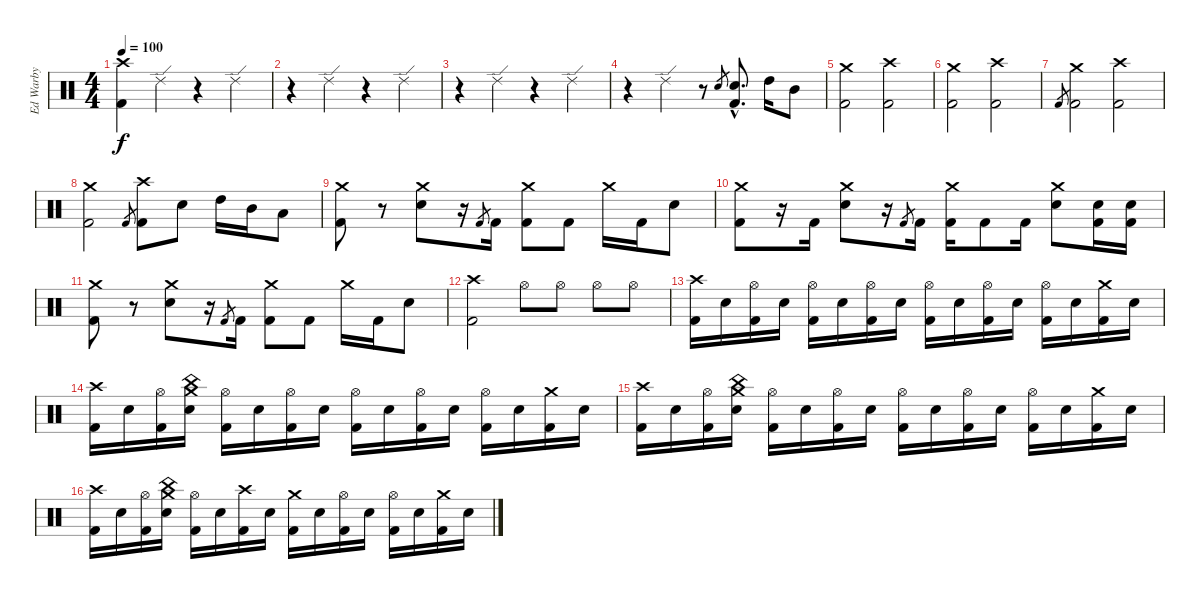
\track ("Ed Warby" "Ed Warby") {instrument percussion}
\staff {score}
\articulation defaults
\ts (4 4)
\tempo 100
\clef neutral
\ks c
("Crash high (hit)" "Kick (hit) 2").4{dy f} "Ride (edge) 2".4 r.4 "Ride (edge) 2".4 |
r.4 "Ride (edge) 2".4 r.4 "Ride (edge) 2".4 |
r.4 "Ride (edge) 2".4 r.4 "Ride (edge) 2".4 |
r.4 "Ride (edge) 2".4 r.8 "Electric Snare (hit)".8{gr} ("Electric Snare (hit)"{hac} "Kick (hit) 2"{hac}).8{d} "High Tom (hit)".16 "Mid Tom (hit)".8 |
("Crash medium (hit)" "Kick (hit) 2").2 ("Crash high (hit)" "Kick (hit) 2").2 |
("Crash medium (hit)" "Kick (hit) 2").2 ("Crash high (hit)" "Kick (hit) 2").2 |
"Kick (hit) 2".8{gr} ("Crash medium (hit)" "Kick (hit) 2").2 ("Crash high (hit)" "Kick (hit) 2").2 |
("Crash medium (hit)" "Kick (hit) 2").2 "Kick (hit) 2".8{gr} ("Crash high (hit)" "Kick (hit) 2").8 "Electric Snare (hit)".8 "High Tom (hit)".16 "Mid Tom (hit)".16 "Low Tom (hit)".8 |
("Crash medium (hit)" "Kick (hit) 2").8 r.8 ("Crash medium (hit)" "Electric Snare (hit)").8 r.16 "Kick (hit) 2".8{gr} "Kick (hit) 2".16 ("Crash medium (hit)" "Kick (hit) 2").8 "Kick (hit) 2".8 "Crash medium (hit)".16 "Kick (hit) 2".16 "Electric Snare (hit)".8 |
("Crash medium (hit)" "Kick (hit) 2").8 r.16 "Kick (hit) 2".16 ("Crash medium (hit)" "Electric Snare (hit)").8 r.16 "Kick (hit) 2".8{gr} "Kick (hit) 2".16 ("Crash medium (hit)" "Kick (hit) 2").16 "Kick (hit) 2".8 "Kick (hit) 2".16 ("Crash medium (hit)" "Electric Snare (hit)").8 ("Electric Snare (hit)" "Kick (hit) 2").16 ("Electric Snare (hit)" "Kick (hit) 2").16 |
("Crash medium (hit)" "Kick (hit) 2").8 r.8 ("Crash medium (hit)" "Electric Snare (hit)").8 r.16 "Kick (hit) 2".8{gr} "Kick (hit) 2".16 ("Crash medium (hit)" "Kick (hit) 2").8 "Kick (hit) 2".8 "Crash medium (hit)".16 "Kick (hit) 2".16 "Electric Snare (hit)".8 |
("Crash high (hit)" "Kick (hit) 2").2 "Hi-Hat (open)".8 "Hi-Hat (open)".8 "Hi-Hat (open)".8 "Hi-Hat (open)".8 |
("Crash high (hit)" "Kick (hit) 2").16 "Snare (hit) 2".16 ("Hi-Hat (open)" "Kick (hit) 2").16 "Snare (hit) 2".16 ("Hi-Hat (open)" "Kick (hit) 2").16 "Snare (hit) 2".16 ("Hi-Hat (open)" "Kick (hit) 2").16 "Snare (hit) 2".16 ("Hi-Hat (open)" "Kick (hit) 2").16 "Snare (hit) 2".16 ("Hi-Hat (open)" "Kick (hit) 2").16 "Snare (hit) 2".16 ("Hi-Hat (open)" "Kick (hit) 2").16 "Snare (hit) 2".16 ("Crash medium (hit)" "Kick (hit) 2").16 "Snare (hit) 2".16 |
("Crash high (hit)" "Kick (hit) 2").16 "Snare (hit) 2".16 ("Hi-Hat (open)" "Kick (hit) 2").16 ("China (hit)" "Crash medium (hit)" "Snare (hit) 2").16 ("Hi-Hat (open)" "Kick (hit) 2").16 "Snare (hit) 2".16 ("Hi-Hat (open)" "Kick (hit) 2").16 "Snare (hit) 2".16 ("Hi-Hat (open)" "Kick (hit) 2").16 "Snare (hit) 2".16 ("Hi-Hat (open)" "Kick (hit) 2").16 "Snare (hit) 2".16 ("Hi-Hat (open)" "Kick (hit) 2").16 "Snare (hit) 2".16 ("Crash medium (hit)" "Kick (hit) 2").16 "Snare (hit) 2".16 |
("Crash high (hit)" "Kick (hit) 2").16 "Snare (hit) 2".16 ("Hi-Hat (open)" "Kick (hit) 2").16 ("China (hit)" "Crash medium (hit)" "Snare (hit) 2").16 ("Hi-Hat (open)" "Kick (hit) 2").16 "Snare (hit) 2".16 ("Hi-Hat (open)" "Kick (hit) 2").16 "Snare (hit) 2".16 ("Hi-Hat (open)" "Kick (hit) 2").16 "Snare (hit) 2".16 ("Hi-Hat (open)" "Kick (hit) 2").16 "Snare (hit) 2".16 ("Hi-Hat (open)" "Kick (hit) 2").16 "Snare (hit) 2".16 ("Crash medium (hit)" "Kick (hit) 2").16 "Snare (hit) 2".16 |
("Crash high (hit)" "Kick (hit) 2").16 "Snare (hit) 2".16 ("Hi-Hat (open)" "Kick (hit) 2").16 ("China (hit)" "Crash medium (hit)" "Snare (hit) 2").16 ("Hi-Hat (open)" "Kick (hit) 2").16 "Snare (hit) 2".16 ("Crash high (hit)" "Kick (hit) 2").16 "Snare (hit) 2".16 ("Crash medium (hit)" "Kick (hit) 2").16 "Snare (hit) 2".16 ("Hi-Hat (open)" "Kick (hit) 2").16 "Snare (hit) 2".16 ("Hi-Hat (open)" "Kick (hit) 2").16 "Snare (hit) 2".16 ("Crash medium (hit)" "Kick (hit) 2").16 "Snare (hit) 2".16
